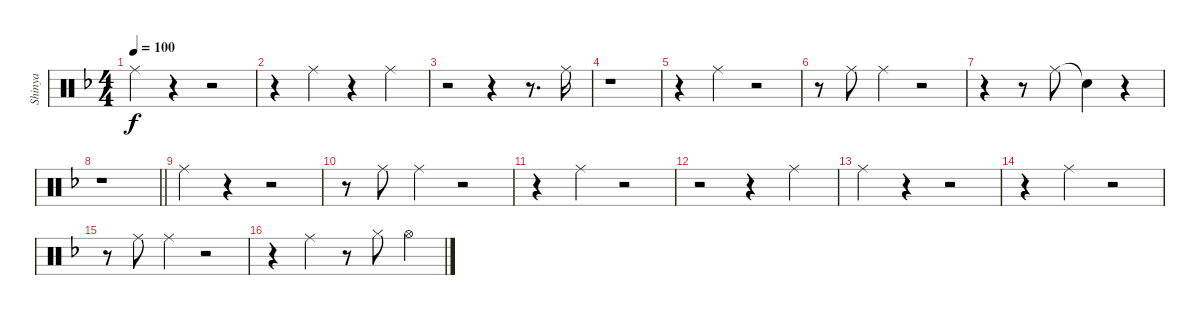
\track ("Shinya" "Shinya") {instrument percussion}
\staff {score}
\articulation defaults
\ts (4 4)
\tempo 100
\clef neutral
\ks f "Ride (middle)".4{dy f}
r.4 r.2 |
r.4 "Ride (middle)".4 r.4 "Ride (middle)".4 |
r.2 r.4 r.8{d} "Ride (middle)".16 |
r.1 |
r.4 "Ride (middle)".4 r.2 |
r.8 "Ride (middle)".8 "Ride (middle)".4 r.2 |
r.4 r.8 "Ride (middle)".8 "Snare (hit)"{t}.4 r.4 |
\barLineRight lightlight
r.1 |
"Ride (middle)".4 r.4 r.2 |
r.8 "Ride (middle)".8 "Ride (middle)".4 r.2 |
r.4 "Ride (middle)".4 r.2 |
r.2 r.4 "Ride (middle)".4 |
"Ride (middle)".4 r.4 r.2 |
r.4 "Ride (middle)".4 r.2 |
r.8 "Ride (middle)".8 "Ride (middle)".4 r.2 |
r.4 "Ride (middle)".4 r.8 "Hi-Hat (closed)".8 "Hi-Hat (open)".4
